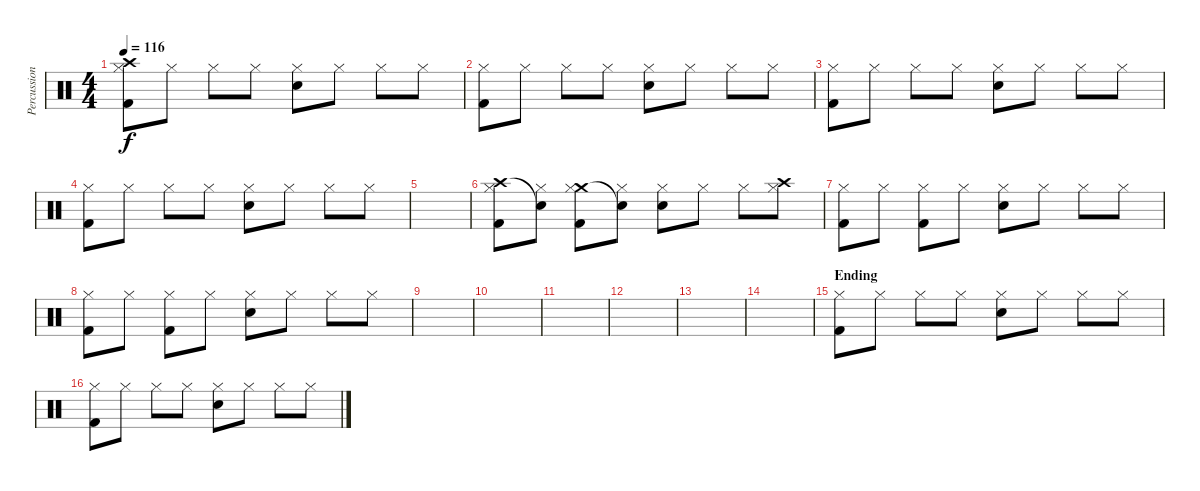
\track ("Percussion" "Percussion") {instrument percussion}
\staff {score}
\articulation defaults
\ts (4 4)
\tempo 116
\clef neutral
\ks c
("Crash high (hit)" "Hi-Hat (closed)" "Kick (hit) 2").8{dy f} "Hi-Hat (closed)".8 "Hi-Hat (closed)".8 "Hi-Hat (closed)".8 ("Hi-Hat (closed)" "Snare (hit) 2").8 "Hi-Hat (closed)".8 "Hi-Hat (closed)".8 "Hi-Hat (closed)".8 |
("Hi-Hat (closed)" "Kick (hit) 2").8 "Hi-Hat (closed)".8 "Hi-Hat (closed)".8 "Hi-Hat (closed)".8 ("Hi-Hat (closed)" "Snare (hit) 2").8 "Hi-Hat (closed)".8 "Hi-Hat (closed)".8 "Hi-Hat (closed)".8 |
("Hi-Hat (closed)" "Kick (hit) 2").8 "Hi-Hat (closed)".8 "Hi-Hat (closed)".8 "Hi-Hat (closed)".8 ("Hi-Hat (closed)" "Snare (hit) 2").8 "Hi-Hat (closed)".8 "Hi-Hat (closed)".8 "Hi-Hat (closed)".8 |
("Hi-Hat (closed)" "Kick (hit) 2").8 "Hi-Hat (closed)".8 "Hi-Hat (closed)".8 "Hi-Hat (closed)".8 ("Hi-Hat (closed)" "Snare (hit) 2").8 "Hi-Hat (closed)".8 "Hi-Hat (closed)".8 "Hi-Hat (closed)".8 |
|
("Crash high (hit)" "Hi-Hat (closed)" "Kick (hit) 2").8 ("Snare (hit)"{t} "Hi-Hat (closed)").8 ("Crash medium (hit)" "Hi-Hat (closed)" "Kick (hit) 2").8 ("Snare (hit)"{t} "Hi-Hat (closed)").8 ("Hi-Hat (closed)" "Snare (hit) 2").8 "Hi-Hat (closed)".8 "Hi-Hat (closed)".8 ("Hi-Hat (closed)" "Crash high (hit)").8 |
("Hi-Hat (closed)" "Kick (hit) 2").8 "Hi-Hat (closed)".8 ("Hi-Hat (closed)" "Kick (hit) 2").8 "Hi-Hat (closed)".8 ("Hi-Hat (closed)" "Snare (hit) 2").8 "Hi-Hat (closed)".8 "Hi-Hat (closed)".8 "Hi-Hat (closed)".8 |
("Hi-Hat (closed)" "Kick (hit) 2").8 "Hi-Hat (closed)".8 ("Hi-Hat (closed)" "Kick (hit) 2").8 "Hi-Hat (closed)".8 ("Hi-Hat (closed)" "Snare (hit) 2").8 "Hi-Hat (closed)".8 "Hi-Hat (closed)".8 "Hi-Hat (closed)".8 |
|
|
|
|
|
|
\section ("" "Ending")
("Hi-Hat (closed)" "Kick (hit) 2").8 "Hi-Hat (closed)".8 "Hi-Hat (closed)".8 "Hi-Hat (closed)".8 ("Hi-Hat (closed)" "Snare (hit) 2").8 "Hi-Hat (closed)".8 "Hi-Hat (closed)".8 "Hi-Hat (closed)".8 |
("Hi-Hat (closed)" "Kick (hit) 2").8 "Hi-Hat (closed)".8 "Hi-Hat (closed)".8 "Hi-Hat (closed)".8 ("Hi-Hat (closed)" "Snare (hit) 2").8 "Hi-Hat (closed)".8 "Hi-Hat (closed)".8 "Hi-Hat (closed)".8
